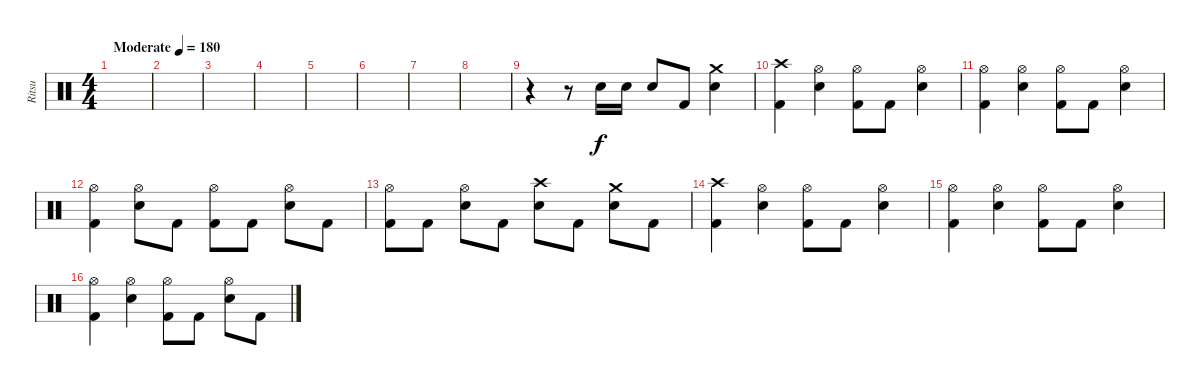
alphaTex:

\track ("Ritsu" "Ritsu") {instrument percussion}
\staff {score}
\articulation defaults
\ts (4 4)
\tempo (180 "Moderate")
\clef neutral
\ks c
|
|
|
|
|
|
|
|
r.4 r.8 "Snare (hit) 2".16 "Snare (hit) 2".16 "Snare (hit) 2".8 "Kick (hit) 2".8 ("Crash medium (hit)" "Snare (hit) 2").4 |
("Crash high (hit)" "Kick (hit) 2").4 ("Hi-Hat (open)" "Snare (hit) 2").4 ("Hi-Hat (open)" "Kick (hit) 2").8 "Kick (hit) 2".8 ("Hi-Hat (open)" "Snare (hit) 2").4 |
("Hi-Hat (open)" "Kick (hit) 2").4 ("Hi-Hat (open)" "Snare (hit) 2").4 ("Hi-Hat (open)" "Kick (hit) 2").8 "Kick (hit) 2".8 ("Hi-Hat (open)" "Snare (hit) 2").4 |
("Hi-Hat (open)" "Kick (hit) 2").4 ("Hi-Hat (open)" "Snare (hit) 2").8 "Kick (hit) 2".8 ("Hi-Hat (open)" "Kick (hit) 2").8 "Kick (hit) 2".8 ("Hi-Hat (open)" "Snare (hit) 2").8 "Kick (hit) 2".8 |
("Hi-Hat (open)" "Kick (hit) 2").8 "Kick (hit) 2".8 ("Hi-Hat (open)" "Snare (hit) 2").8 "Kick (hit) 2".8 ("Crash high (hit)" "Snare (hit) 2").8 "Kick (hit) 2".8 ("Crash medium (hit)" "Snare (hit) 2").8 "Kick (hit) 2".8 |
("Crash high (hit)" "Kick (hit) 2").4 ("Hi-Hat (open)" "Snare (hit) 2").4 ("Hi-Hat (open)" "Kick (hit) 2").8 "Kick (hit) 2".8 ("Hi-Hat (open)" "Snare (hit) 2").4 |
("Hi-Hat (open)" "Kick (hit) 2").4 ("Hi-Hat (open)" "Snare (hit) 2").4 ("Hi-Hat (open)" "Kick (hit) 2").8 "Kick (hit) 2".8 ("Hi-Hat (open)" "Snare (hit) 2").4 |
("Hi-Hat (open)" "Kick (hit) 2").4 ("Hi-Hat (open)" "Snare (hit) 2").4 ("Hi-Hat (open)" "Kick (hit) 2").8 "Kick (hit) 2".8 ("Hi-Hat (open)" "Snare (hit) 2").8 "Kick (hit) 2".8
